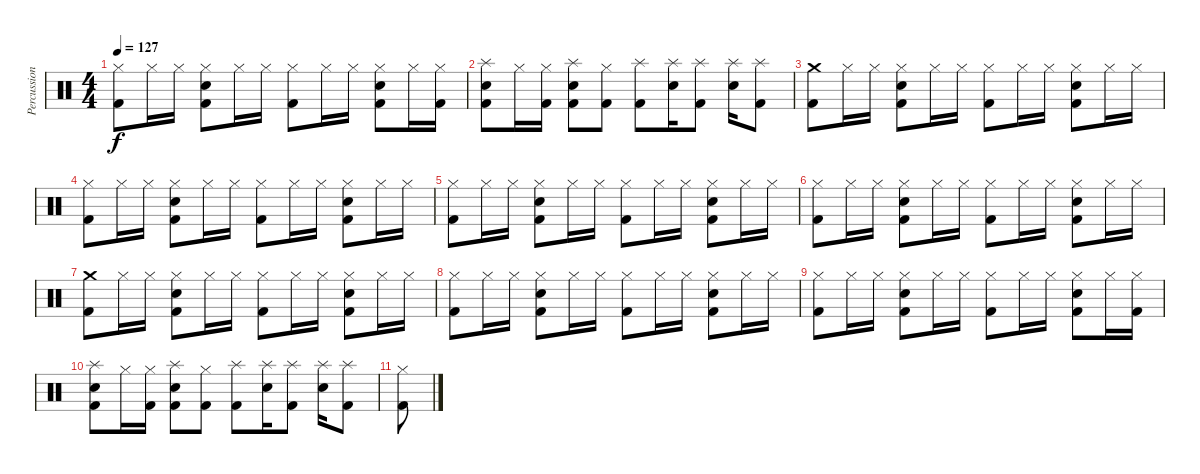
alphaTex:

\track ("Percussion" "Percussion") {instrument percussion}
\staff {score}
\articulation defaults
\ts (4 4)
\tempo 127
\clef neutral
\ks c
("Hi-Hat (closed)" "Kick (hit) 2").8{dy f} "Hi-Hat (closed)".16 "Hi-Hat (closed)".16 ("Hi-Hat (closed)" "Snare (hit) 2" "Kick (hit) 2").8 "Hi-Hat (closed)".16 "Hi-Hat (closed)".16 ("Hi-Hat (closed)" "Kick (hit) 2").8 "Hi-Hat (closed)".16 "Hi-Hat (closed)".16 ("Hi-Hat (closed)" "Snare (hit) 2" "Kick (hit) 2").8 "Hi-Hat (closed)".16 ("Hi-Hat (closed)" "Kick (hit) 2").16 |
("Splash (hit)" "Snare (hit) 2" "Kick (hit) 2").8 "Hi-Hat (closed)".16 ("Hi-Hat (closed)" "Kick (hit) 2").16 ("Splash (hit)" "Snare (hit) 2" "Kick (hit) 2").8 ("Hi-Hat (closed)" "Kick (hit) 2").8 ("Splash (hit)" "Kick (hit) 2").8 ("Splash (hit)" "Snare (hit) 2").16 ("Splash (hit)" "Kick (hit) 2").8 ("Splash (hit)" "Snare (hit) 2").16 ("Splash (hit)" "Kick (hit) 2").8 |
("Crash medium (hit)" "Kick (hit) 2").8 "Hi-Hat (closed)".16 "Hi-Hat (closed)".16 ("Hi-Hat (closed)" "Snare (hit) 2" "Kick (hit) 2").8 "Hi-Hat (closed)".16 "Hi-Hat (closed)".16 ("Hi-Hat (closed)" "Kick (hit) 2").8 "Hi-Hat (closed)".16 "Hi-Hat (closed)".16 ("Hi-Hat (closed)" "Snare (hit) 2" "Kick (hit) 2").8 "Hi-Hat (closed)".16 "Hi-Hat (closed)".16 |
("Hi-Hat (closed)" "Kick (hit) 2").8 "Hi-Hat (closed)".16 "Hi-Hat (closed)".16 ("Hi-Hat (closed)" "Snare (hit) 2" "Kick (hit) 2").8 "Hi-Hat (closed)".16 "Hi-Hat (closed)".16 ("Hi-Hat (closed)" "Kick (hit) 2").8 "Hi-Hat (closed)".16 "Hi-Hat (closed)".16 ("Hi-Hat (closed)" "Snare (hit) 2" "Kick (hit) 2").8 "Hi-Hat (closed)".16 "Hi-Hat (closed)".16 |
("Hi-Hat (closed)" "Kick (hit) 2").8 "Hi-Hat (closed)".16 "Hi-Hat (closed)".16 ("Hi-Hat (closed)" "Snare (hit) 2" "Kick (hit) 2").8 "Hi-Hat (closed)".16 "Hi-Hat (closed)".16 ("Hi-Hat (closed)" "Kick (hit) 2").8 "Hi-Hat (closed)".16 "Hi-Hat (closed)".16 ("Hi-Hat (closed)" "Snare (hit) 2" "Kick (hit) 2").8 "Hi-Hat (closed)".16 "Hi-Hat (closed)".16 |
("Hi-Hat (closed)" "Kick (hit) 2").8 "Hi-Hat (closed)".16 "Hi-Hat (closed)".16 ("Hi-Hat (closed)" "Snare (hit) 2" "Kick (hit) 2").8 "Hi-Hat (closed)".16 "Hi-Hat (closed)".16 ("Hi-Hat (closed)" "Kick (hit) 2").8 "Hi-Hat (closed)".16 "Hi-Hat (closed)".16 ("Hi-Hat (closed)" "Snare (hit) 2" "Kick (hit) 2").8 "Hi-Hat (closed)".16 "Hi-Hat (closed)".16 |
("Crash medium (hit)" "Kick (hit) 2").8 "Hi-Hat (closed)".16 "Hi-Hat (closed)".16 ("Hi-Hat (closed)" "Snare (hit) 2" "Kick (hit) 2").8 "Hi-Hat (closed)".16 "Hi-Hat (closed)".16 ("Hi-Hat (closed)" "Kick (hit) 2").8 "Hi-Hat (closed)".16 "Hi-Hat (closed)".16 ("Hi-Hat (closed)" "Snare (hit) 2" "Kick (hit) 2").8 "Hi-Hat (closed)".16 "Hi-Hat (closed)".16 |
("Hi-Hat (closed)" "Kick (hit) 2").8 "Hi-Hat (closed)".16 "Hi-Hat (closed)".16 ("Hi-Hat (closed)" "Snare (hit) 2" "Kick (hit) 2").8 "Hi-Hat (closed)".16 "Hi-Hat (closed)".16 ("Hi-Hat (closed)" "Kick (hit) 2").8 "Hi-Hat (closed)".16 "Hi-Hat (closed)".16 ("Hi-Hat (closed)" "Snare (hit) 2" "Kick (hit) 2").8 "Hi-Hat (closed)".16 "Hi-Hat (closed)".16 |
("Hi-Hat (closed)" "Kick (hit) 2").8 "Hi-Hat (closed)".16 "Hi-Hat (closed)".16 ("Hi-Hat (closed)" "Snare (hit) 2" "Kick (hit) 2").8 "Hi-Hat (closed)".16 "Hi-Hat (closed)".16 ("Hi-Hat (closed)" "Kick (hit) 2").8 "Hi-Hat (closed)".16 "Hi-Hat (closed)".16 ("Hi-Hat (closed)" "Snare (hit) 2" "Kick (hit) 2").8 "Hi-Hat (closed)".16 ("Hi-Hat (closed)" "Kick (hit) 2").16 |
("Splash (hit)" "Snare (hit) 2" "Kick (hit) 2").8 "Hi-Hat (closed)".16 ("Hi-Hat (closed)" "Kick (hit) 2").16 ("Splash (hit)" "Snare (hit) 2" "Kick (hit) 2").8 ("Hi-Hat (closed)" "Kick (hit) 2").8 ("Splash (hit)" "Kick (hit) 2").8 ("Splash (hit)" "Snare (hit) 2").16 ("Splash (hit)" "Kick (hit) 2").8 ("Splash (hit)" "Snare (hit) 2").16 ("Splash (hit)" "Kick (hit) 2").8 |
("Hi-Hat (closed)" "Kick (hit) 2").8
